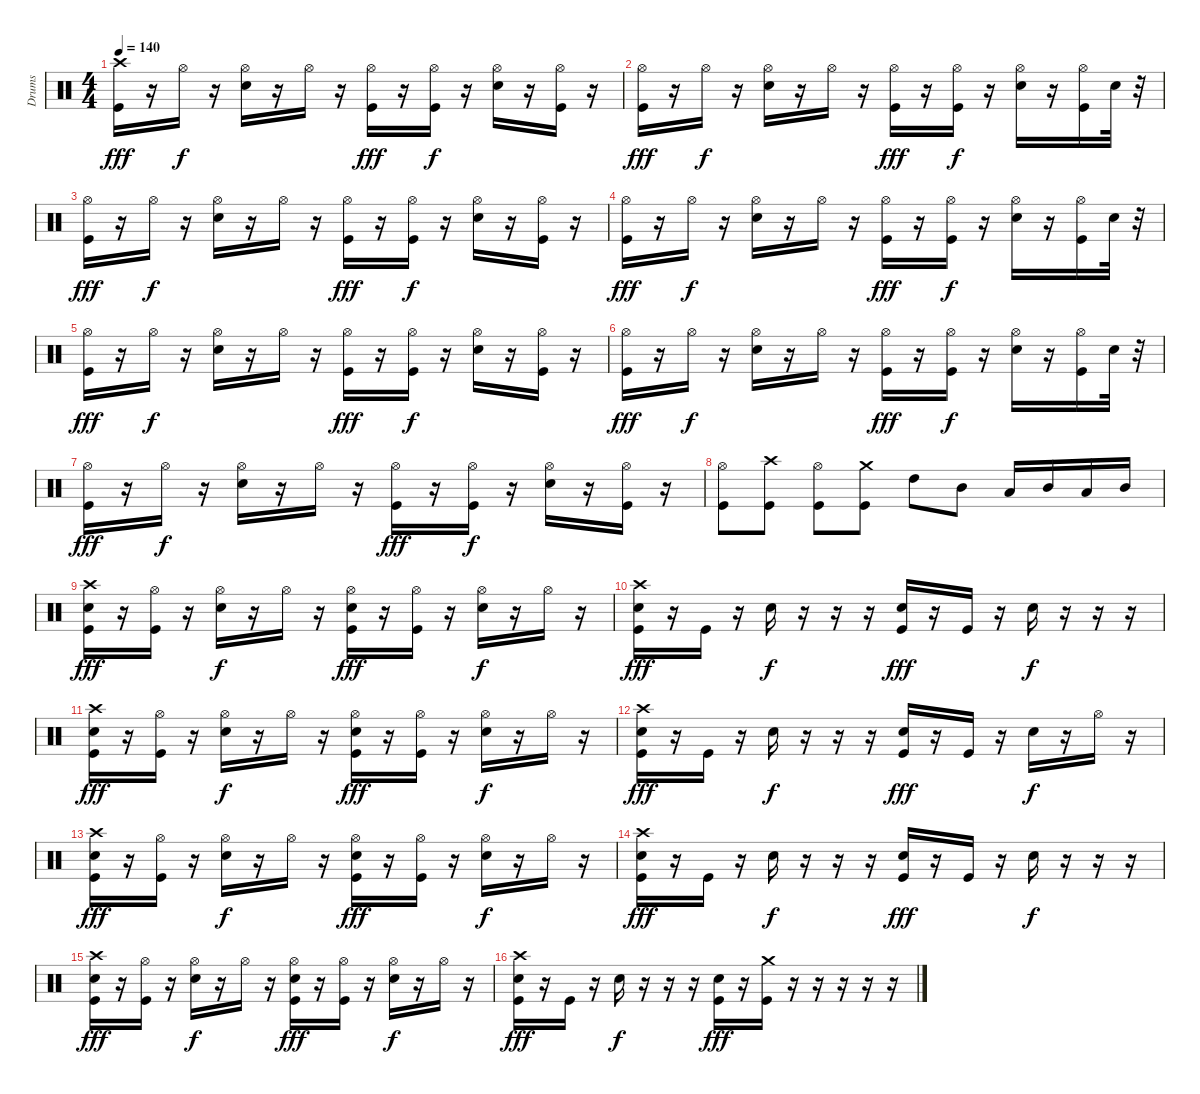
\track ("Drums" "Drums") {instrument percussion}
\staff {score}
\articulation defaults
\ts (4 4)
\tempo 140
\clef neutral
\ks c
("Crash high (hit)" "Kick (hit)").16{dy fff} r.16 "Hi-Hat (open)".16{dy f} r.16 ("Hi-Hat (open)" "Electric Snare (hit)").16 r.16 "Hi-Hat (open)".16 r.16 ("Hi-Hat (open)" "Kick (hit)").16{dy fff} r.16 ("Hi-Hat (open)" "Kick (hit)").16{dy f} r.16 ("Hi-Hat (open)" "Electric Snare (hit)").16 r.16 ("Hi-Hat (open)" "Kick (hit)").16 r.16 |
("Hi-Hat (open)" "Kick (hit)").16{dy fff} r.16 "Hi-Hat (open)".16{dy f} r.16 ("Hi-Hat (open)" "Electric Snare (hit)").16 r.16 "Hi-Hat (open)".16 r.16 ("Hi-Hat (open)" "Kick (hit)").16{dy fff} r.16 ("Hi-Hat (open)" "Kick (hit)").16{dy f} r.16 ("Hi-Hat (open)" "Electric Snare (hit)").16 r.16 ("Hi-Hat (open)" "Kick (hit)").16 "Electric Snare (hit)".32 r.32 |
("Hi-Hat (open)" "Kick (hit)").16{dy fff} r.16 "Hi-Hat (open)".16{dy f} r.16 ("Hi-Hat (open)" "Electric Snare (hit)").16 r.16 "Hi-Hat (open)".16 r.16 ("Hi-Hat (open)" "Kick (hit)").16{dy fff} r.16 ("Hi-Hat (open)" "Kick (hit)").16{dy f} r.16 ("Hi-Hat (open)" "Electric Snare (hit)").16 r.16 ("Hi-Hat (open)" "Kick (hit)").16 r.16 |
("Hi-Hat (open)" "Kick (hit)").16{dy fff} r.16 "Hi-Hat (open)".16{dy f} r.16 ("Hi-Hat (open)" "Electric Snare (hit)").16 r.16 "Hi-Hat (open)".16 r.16 ("Hi-Hat (open)" "Kick (hit)").16{dy fff} r.16 ("Hi-Hat (open)" "Kick (hit)").16{dy f} r.16 ("Hi-Hat (open)" "Electric Snare (hit)").16 r.16 ("Hi-Hat (open)" "Kick (hit)").16 "Electric Snare (hit)".32 r.32 |
("Hi-Hat (open)" "Kick (hit)").16{dy fff} r.16 "Hi-Hat (open)".16{dy f} r.16 ("Hi-Hat (open)" "Electric Snare (hit)").16 r.16 "Hi-Hat (open)".16 r.16 ("Hi-Hat (open)" "Kick (hit)").16{dy fff} r.16 ("Hi-Hat (open)" "Kick (hit)").16{dy f} r.16 ("Hi-Hat (open)" "Electric Snare (hit)").16 r.16 ("Hi-Hat (open)" "Kick (hit)").16 r.16 |
("Hi-Hat (open)" "Kick (hit)").16{dy fff} r.16 "Hi-Hat (open)".16{dy f} r.16 ("Hi-Hat (open)" "Electric Snare (hit)").16 r.16 "Hi-Hat (open)".16 r.16 ("Hi-Hat (open)" "Kick (hit)").16{dy fff} r.16 ("Hi-Hat (open)" "Kick (hit)").16{dy f} r.16 ("Hi-Hat (open)" "Electric Snare (hit)").16 r.16 ("Hi-Hat (open)" "Kick (hit)").16 "Electric Snare (hit)".32 r.32 |
("Hi-Hat (open)" "Kick (hit)").16{dy fff} r.16 "Hi-Hat (open)".16{dy f} r.16 ("Hi-Hat (open)" "Electric Snare (hit)").16 r.16 "Hi-Hat (open)".16 r.16 ("Hi-Hat (open)" "Kick (hit)").16{dy fff} r.16 ("Hi-Hat (open)" "Kick (hit)").16{dy f} r.16 ("Hi-Hat (open)" "Electric Snare (hit)").16 r.16 ("Hi-Hat (open)" "Kick (hit)").16 r.16 |
("Hi-Hat (open)" "Kick (hit)").8 ("Crash high (hit)" "Kick (hit)").8 ("Hi-Hat (open)" "Kick (hit)").8 ("Crash medium (hit)" "Kick (hit)").8 "High Tom (hit)".8 "Mid Tom (hit)".8 "Low Tom (hit)".16 "Mid Tom (hit)".16 "Low Tom (hit)".16 "Mid Tom (hit)".16 |
("Crash high (hit)" "Electric Snare (hit)" "Kick (hit)").16{dy fff} r.16 ("Hi-Hat (open)" "Kick (hit)").16 r.16 ("Hi-Hat (open)" "Electric Snare (hit)").16{dy f} r.16 "Hi-Hat (open)".16 r.16 ("Hi-Hat (open)" "Electric Snare (hit)" "Kick (hit)").16{dy fff} r.16 ("Hi-Hat (open)" "Kick (hit)").16 r.16 ("Hi-Hat (open)" "Electric Snare (hit)").16{dy f} r.16 "Hi-Hat (open)".16 r.16 |
("Crash high (hit)" "Electric Snare (hit)" "Kick (hit)").16{dy fff} r.16 "Kick (hit)".16 r.16 "Electric Snare (hit)".16{dy f} r.16 r.16 r.16 ("Electric Snare (hit)" "Kick (hit)").16{dy fff} r.16 "Kick (hit)".16 r.16 "Electric Snare (hit)".16{dy f} r.16 r.16 r.16 |
("Crash high (hit)" "Electric Snare (hit)" "Kick (hit)").16{dy fff} r.16 ("Hi-Hat (open)" "Kick (hit)").16 r.16 ("Hi-Hat (open)" "Electric Snare (hit)").16{dy f} r.16 "Hi-Hat (open)".16 r.16 ("Hi-Hat (open)" "Electric Snare (hit)" "Kick (hit)").16{dy fff} r.16 ("Hi-Hat (open)" "Kick (hit)").16 r.16 ("Hi-Hat (open)" "Electric Snare (hit)").16{dy f} r.16 "Hi-Hat (open)".16 r.16 |
("Crash high (hit)" "Electric Snare (hit)" "Kick (hit)").16{dy fff} r.16 "Kick (hit)".16 r.16 "Electric Snare (hit)".16{dy f} r.16 r.16 r.16 ("Electric Snare (hit)" "Kick (hit)").16{dy fff} r.16 "Kick (hit)".16 r.16 "Electric Snare (hit)".16{dy f} r.16 "Hi-Hat (open)".16 r.16 |
("Crash high (hit)" "Electric Snare (hit)" "Kick (hit)").16{dy fff} r.16 ("Hi-Hat (open)" "Kick (hit)").16 r.16 ("Hi-Hat (open)" "Electric Snare (hit)").16{dy f} r.16 "Hi-Hat (open)".16 r.16 ("Hi-Hat (open)" "Electric Snare (hit)" "Kick (hit)").16{dy fff} r.16 ("Hi-Hat (open)" "Kick (hit)").16 r.16 ("Hi-Hat (open)" "Electric Snare (hit)").16{dy f} r.16 "Hi-Hat (open)".16 r.16 |
("Crash high (hit)" "Electric Snare (hit)" "Kick (hit)").16{dy fff} r.16 "Kick (hit)".16 r.16 "Electric Snare (hit)".16{dy f} r.16 r.16 r.16 ("Electric Snare (hit)" "Kick (hit)").16{dy fff} r.16 "Kick (hit)".16 r.16 "Electric Snare (hit)".16{dy f} r.16 r.16 r.16 |
("Crash high (hit)" "Electric Snare (hit)" "Kick (hit)").16{dy fff} r.16 ("Hi-Hat (open)" "Kick (hit)").16 r.16 ("Hi-Hat (open)" "Electric Snare (hit)").16{dy f} r.16 "Hi-Hat (open)".16 r.16 ("Hi-Hat (open)" "Electric Snare (hit)" "Kick (hit)").16{dy fff} r.16 ("Hi-Hat (open)" "Kick (hit)").16 r.16 ("Hi-Hat (open)" "Electric Snare (hit)").16{dy f} r.16 "Hi-Hat (open)".16 r.16 |
("Crash high (hit)" "Electric Snare (hit)" "Kick (hit)").16{dy fff} r.16 "Kick (hit)".16 r.16 "Electric Snare (hit)".16{dy f} r.16 r.16 r.16 ("Electric Snare (hit)" "Kick (hit)").16{dy fff} r.16 ("Crash medium (hit)" "Kick (hit)").16 r.16 r.16 r.16 r.16 r.16
